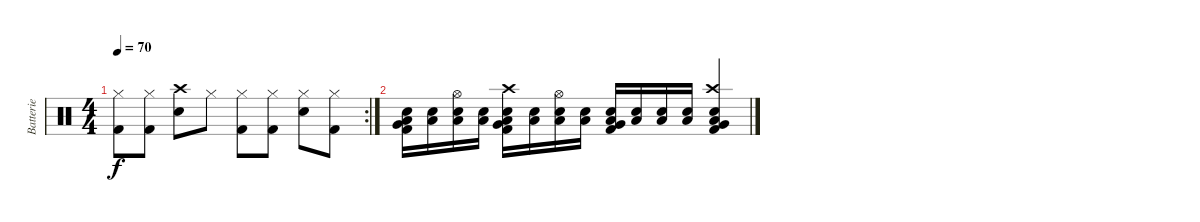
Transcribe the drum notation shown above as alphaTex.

\track ("Batterie" "Batterie") {instrument percussion}
\staff {score}
\articulation defaults
\rc 2
\ts (4 4)
\tempo 70
\clef neutral
\ks c
("Kick (hit) 2" "Hi-Hat (closed)").8{dy f} ("Kick (hit) 2" "Hi-Hat (closed)").8 ("Snare (hit) 2" "Crash high (hit)").8 "Hi-Hat (closed)".8 ("Kick (hit) 2" "Hi-Hat (closed)").8 ("Kick (hit) 2" "Hi-Hat (closed)").8 ("Snare (hit) 2" "Hi-Hat (closed)").8 ("Kick (hit) 2" "Hi-Hat (closed)").8 |
("Low Tom (hit)" "Snare (hit) 2" "Kick (hit) 2" "Very Low Tom (hit)").16 ("Low Tom (hit)" "Snare (hit) 2").16 ("Hi-Hat (open)" "Low Tom (hit)" "Snare (hit) 2").16 ("Low Tom (hit)" "Snare (hit) 2").16 ("Crash high (hit)" "Low Tom (hit)" "Snare (hit) 2" "Kick (hit) 2" "Very Low Tom (hit)").16 ("Low Tom (hit)" "Snare (hit) 2").16 ("Hi-Hat (open)" "Low Tom (hit)" "Snare (hit) 2").16 ("Low Tom (hit)" "Snare (hit) 2").16 ("Low Tom (hit)" "Snare (hit) 2" "Kick (hit) 2" "Very Low Tom (hit)").16 ("Low Tom (hit)" "Snare (hit) 2").16 ("Low Tom (hit)" "Snare (hit) 2").16 ("Low Tom (hit)" "Snare (hit) 2").16 ("Crash high (hit)" "Low Tom (hit)" "Snare (hit) 2" "Kick (hit) 2" "Very Low Tom (hit)").4
